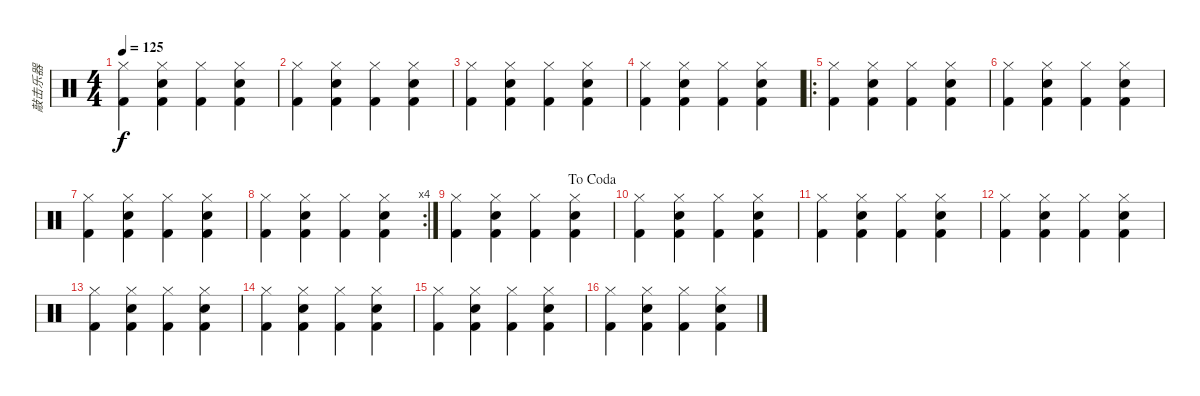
\track ("敲击乐器" "敲击乐器") {solo instrument percussion}
\staff {score}
\articulation defaults
\ts (4 4)
\tempo 125
\clef neutral
\ks c
("Hi-Hat (closed)" "Kick (hit) 2").4{dy f} ("Kick (hit) 2" "Hand Clap (hit)" "Hi-Hat (closed)").4 ("Kick (hit) 2" "Hi-Hat (closed)").4 ("Kick (hit) 2" "Hi-Hat (closed)" "Hand Clap (hit)").4 |
("Hi-Hat (closed)" "Kick (hit) 2").4 ("Kick (hit) 2" "Hand Clap (hit)" "Hi-Hat (closed)").4 ("Kick (hit) 2" "Hi-Hat (closed)").4 ("Kick (hit) 2" "Hi-Hat (closed)" "Hand Clap (hit)").4 |
("Hi-Hat (closed)" "Kick (hit) 2").4 ("Kick (hit) 2" "Hand Clap (hit)" "Hi-Hat (closed)").4 ("Kick (hit) 2" "Hi-Hat (closed)").4 ("Kick (hit) 2" "Hi-Hat (closed)" "Hand Clap (hit)").4 |
("Hi-Hat (closed)" "Kick (hit) 2").4 ("Kick (hit) 2" "Hand Clap (hit)" "Hi-Hat (closed)").4 ("Kick (hit) 2" "Hi-Hat (closed)").4 ("Kick (hit) 2" "Hi-Hat (closed)" "Hand Clap (hit)").4 |
\ro
("Hi-Hat (closed)" "Kick (hit) 2").4 ("Kick (hit) 2" "Hand Clap (hit)" "Hi-Hat (closed)").4 ("Kick (hit) 2" "Hi-Hat (closed)").4 ("Kick (hit) 2" "Hi-Hat (closed)" "Hand Clap (hit)").4 |
("Hi-Hat (closed)" "Kick (hit) 2").4 ("Kick (hit) 2" "Hand Clap (hit)" "Hi-Hat (closed)").4 ("Kick (hit) 2" "Hi-Hat (closed)").4 ("Kick (hit) 2" "Hi-Hat (closed)" "Hand Clap (hit)").4 |
("Hi-Hat (closed)" "Kick (hit) 2").4 ("Kick (hit) 2" "Hand Clap (hit)" "Hi-Hat (closed)").4 ("Kick (hit) 2" "Hi-Hat (closed)").4 ("Kick (hit) 2" "Hi-Hat (closed)" "Hand Clap (hit)").4 |
\rc 4
("Hi-Hat (closed)" "Kick (hit) 2").4 ("Kick (hit) 2" "Hand Clap (hit)" "Hi-Hat (closed)").4 ("Kick (hit) 2" "Hi-Hat (closed)").4 ("Kick (hit) 2" "Hi-Hat (closed)" "Hand Clap (hit)").4 |
\jump dacoda
("Hi-Hat (closed)" "Kick (hit) 2").4 ("Kick (hit) 2" "Hand Clap (hit)" "Hi-Hat (closed)").4 ("Kick (hit) 2" "Hi-Hat (closed)").4 ("Kick (hit) 2" "Hi-Hat (closed)" "Hand Clap (hit)").4 |
("Hi-Hat (closed)" "Kick (hit) 2").4 ("Kick (hit) 2" "Hand Clap (hit)" "Hi-Hat (closed)").4 ("Kick (hit) 2" "Hi-Hat (closed)").4 ("Kick (hit) 2" "Hi-Hat (closed)" "Hand Clap (hit)").4 |
("Hi-Hat (closed)" "Kick (hit) 2").4 ("Kick (hit) 2" "Hand Clap (hit)" "Hi-Hat (closed)").4 ("Kick (hit) 2" "Hi-Hat (closed)").4 ("Kick (hit) 2" "Hi-Hat (closed)" "Hand Clap (hit)").4 |
("Hi-Hat (closed)" "Kick (hit) 2").4 ("Kick (hit) 2" "Hand Clap (hit)" "Hi-Hat (closed)").4 ("Kick (hit) 2" "Hi-Hat (closed)").4 ("Kick (hit) 2" "Hi-Hat (closed)" "Hand Clap (hit)").4 |
("Hi-Hat (closed)" "Kick (hit) 2").4 ("Kick (hit) 2" "Hand Clap (hit)" "Hi-Hat (closed)").4 ("Kick (hit) 2" "Hi-Hat (closed)").4 ("Kick (hit) 2" "Hi-Hat (closed)" "Hand Clap (hit)").4 |
("Hi-Hat (closed)" "Kick (hit) 2").4 ("Kick (hit) 2" "Hand Clap (hit)" "Hi-Hat (closed)").4 ("Kick (hit) 2" "Hi-Hat (closed)").4 ("Kick (hit) 2" "Hi-Hat (closed)" "Hand Clap (hit)").4 |
("Hi-Hat (closed)" "Kick (hit) 2").4 ("Kick (hit) 2" "Hand Clap (hit)" "Hi-Hat (closed)").4 ("Kick (hit) 2" "Hi-Hat (closed)").4 ("Kick (hit) 2" "Hi-Hat (closed)" "Hand Clap (hit)").4 |
("Hi-Hat (closed)" "Kick (hit) 2").4 ("Kick (hit) 2" "Hand Clap (hit)" "Hi-Hat (closed)").4 ("Kick (hit) 2" "Hi-Hat (closed)").4 ("Kick (hit) 2" "Hi-Hat (closed)" "Hand Clap (hit)").4
